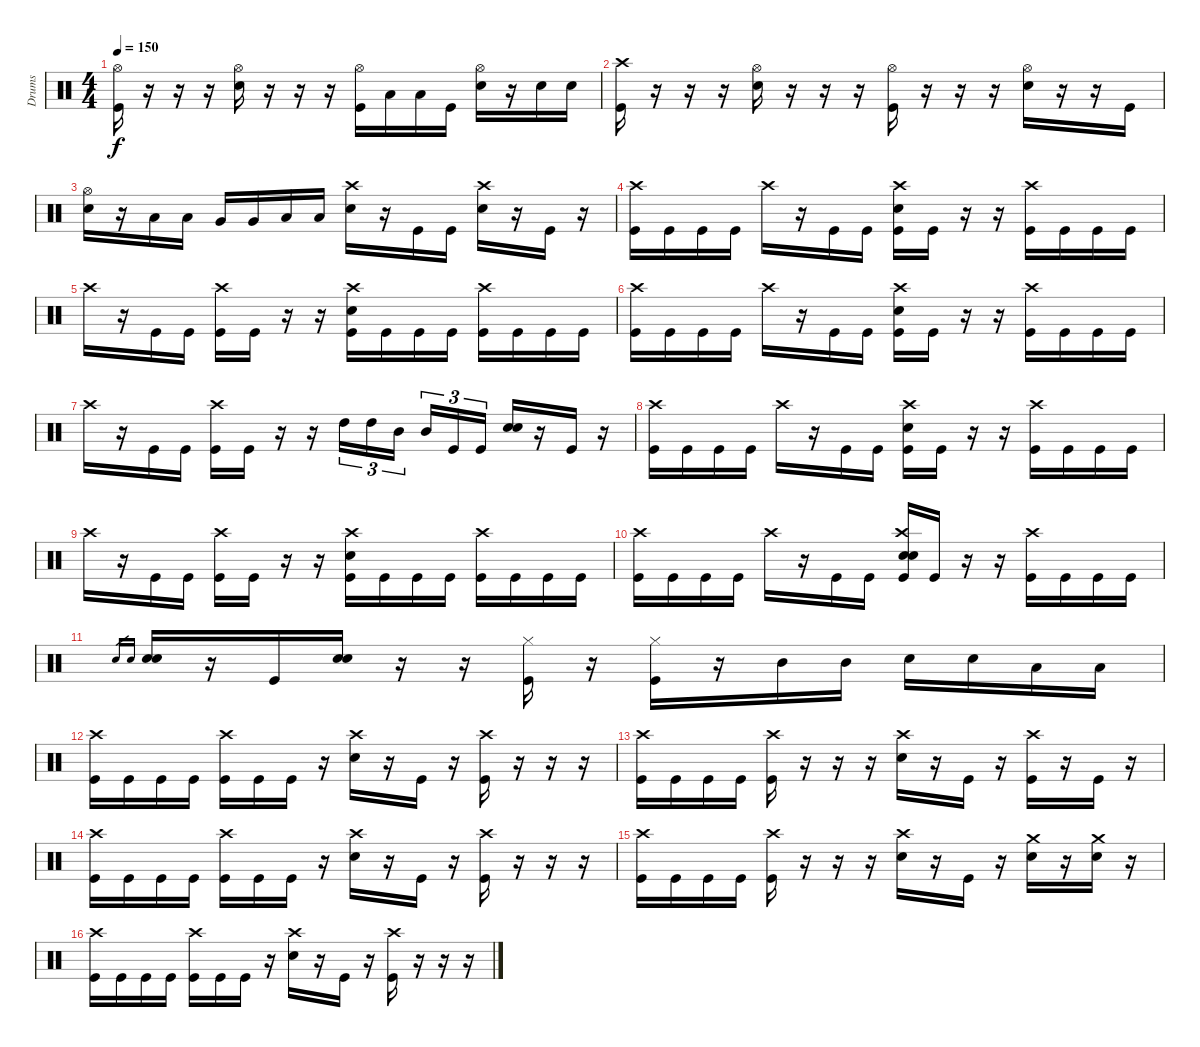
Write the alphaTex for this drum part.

\track ("Drums" "Drums") {instrument percussion}
\staff {score}
\articulation defaults
\ts (4 4)
\tempo 150
\clef neutral
\ks c
("Hi-Hat (open)" "Kick (hit)").16{dy f} r.16 r.16 r.16 ("Hi-Hat (open)" "Electric Snare (hit)").16 r.16 r.16 r.16 ("Hi-Hat (open)" "Kick (hit)").16 "Low Tom (hit)".16 "Low Tom (hit)".16 "Kick (hit)".16 ("Hi-Hat (open)" "Electric Snare (hit)").16 r.16 "Electric Snare (hit)".16 "Electric Snare (hit)".16 |
("Crash high (hit)" "Kick (hit)").16 r.16 r.16 r.16 ("Hi-Hat (open)" "Electric Snare (hit)").16 r.16 r.16 r.16 ("Hi-Hat (open)" "Kick (hit)").16 r.16 r.16 r.16 ("Hi-Hat (open)" "Electric Snare (hit)").16 r.16 r.16 "Kick (hit)".16 |
("Hi-Hat (open)" "Electric Snare (hit)").16 r.16 "Low Tom (hit)".16 "Low Tom (hit)".16 "Very Low Tom (hit)".16 "Very Low Tom (hit)".16 "Low Tom (hit)".16 "Low Tom (hit)".16 ("Crash high (hit)" "Electric Snare (hit)").16 r.16 "Kick (hit)".16 "Kick (hit)".16 ("Crash high (hit)" "Electric Snare (hit)").16 r.16 "Kick (hit)".16 r.16 |
("Crash high (hit)" "Kick (hit)").16 "Kick (hit)".16 "Kick (hit)".16 "Kick (hit)".16 "Crash high (hit)".16 r.16 "Kick (hit)".16 "Kick (hit)".16 ("Crash high (hit)" "Electric Snare (hit)" "Kick (hit)").16 "Kick (hit)".16 r.16 r.16 ("Crash high (hit)" "Kick (hit)").16 "Kick (hit)".16 "Kick (hit)".16 "Kick (hit)".16 |
"Crash high (hit)".16 r.16 "Kick (hit)".16 "Kick (hit)".16 ("Crash high (hit)" "Kick (hit)").16 "Kick (hit)".16 r.16 r.16 ("Crash high (hit)" "Electric Snare (hit)" "Kick (hit)").16 "Kick (hit)".16 "Kick (hit)".16 "Kick (hit)".16 ("Crash high (hit)" "Kick (hit)").16 "Kick (hit)".16 "Kick (hit)".16 "Kick (hit)".16 |
("Crash high (hit)" "Kick (hit)").16 "Kick (hit)".16 "Kick (hit)".16 "Kick (hit)".16 "Crash high (hit)".16 r.16 "Kick (hit)".16 "Kick (hit)".16 ("Crash high (hit)" "Electric Snare (hit)" "Kick (hit)").16 "Kick (hit)".16 r.16 r.16 ("Crash high (hit)" "Kick (hit)").16 "Kick (hit)".16 "Kick (hit)".16 "Kick (hit)".16 |
"Crash high (hit)".16 r.16 "Kick (hit)".16 "Kick (hit)".16 ("Crash high (hit)" "Kick (hit)").16 "Kick (hit)".16 r.16 r.16 "High Tom (hit)".16{tu (3 2)} "High Tom (hit)".16{tu (3 2)} "Mid Tom (hit)".16{tu (3 2)} "Mid Tom (hit)".16{tu (3 2)} "Kick (hit)".16{tu (3 2)} "Kick (hit)".16{tu (3 2)} ("Snare (hit) 2" "Electric Snare (hit)").16 r.16 "Kick (hit)".16 r.16 |
("Crash high (hit)" "Kick (hit)").16 "Kick (hit)".16 "Kick (hit)".16 "Kick (hit)".16 "Crash high (hit)".16 r.16 "Kick (hit)".16 "Kick (hit)".16 ("Crash high (hit)" "Electric Snare (hit)" "Kick (hit)").16 "Kick (hit)".16 r.16 r.16 ("Crash high (hit)" "Kick (hit)").16 "Kick (hit)".16 "Kick (hit)".16 "Kick (hit)".16 |
"Crash high (hit)".16 r.16 "Kick (hit)".16 "Kick (hit)".16 ("Crash high (hit)" "Kick (hit)").16 "Kick (hit)".16 r.16 r.16 ("Crash high (hit)" "Electric Snare (hit)" "Kick (hit)").16 "Kick (hit)".16 "Kick (hit)".16 "Kick (hit)".16 ("Crash high (hit)" "Kick (hit)").16 "Kick (hit)".16 "Kick (hit)".16 "Kick (hit)".16 |
("Crash high (hit)" "Kick (hit)").16 "Kick (hit)".16 "Kick (hit)".16 "Kick (hit)".16 "Crash high (hit)".16 r.16 "Kick (hit)".16 "Kick (hit)".16 ("Crash high (hit)" "Snare (hit) 2" "Electric Snare (hit)" "Kick (hit)").16 "Kick (hit)".16 r.16 r.16 ("Crash high (hit)" "Kick (hit)").16 "Kick (hit)".16 "Kick (hit)".16 "Kick (hit)".16 |
"Snare (hit) 2".16{gr} "Electric Snare (hit)".16{gr} ("Snare (hit) 2" "Electric Snare (hit)").16 r.16 "Kick (hit)".16 ("Snare (hit) 2" "Electric Snare (hit)").16 r.16 r.16 ("Hi-Hat (closed)" "Kick (hit)").16 r.16 ("Hi-Hat (closed)" "Kick (hit)").16 r.16 "Mid Tom (hit)".16 "Mid Tom (hit)".16 "Electric Snare (hit)".16 "Electric Snare (hit)".16 "Low Tom (hit)".16 "Low Tom (hit)".16 |
("Crash high (hit)" "Kick (hit)").16 "Kick (hit)".16 "Kick (hit)".16 "Kick (hit)".16 ("Crash high (hit)" "Kick (hit)").16 "Kick (hit)".16 "Kick (hit)".16 r.16 ("Crash high (hit)" "Electric Snare (hit)").16 r.16 "Kick (hit)".16 r.16 ("Crash high (hit)" "Kick (hit)").16 r.16 r.16 r.16 |
("Crash high (hit)" "Kick (hit)").16 "Kick (hit)".16 "Kick (hit)".16 "Kick (hit)".16 ("Crash high (hit)" "Kick (hit)").16 r.16 r.16 r.16 ("Crash high (hit)" "Electric Snare (hit)").16 r.16 "Kick (hit)".16 r.16 ("Crash high (hit)" "Kick (hit)").16 r.16 "Kick (hit)".16 r.16 |
("Crash high (hit)" "Kick (hit)").16 "Kick (hit)".16 "Kick (hit)".16 "Kick (hit)".16 ("Crash high (hit)" "Kick (hit)").16 "Kick (hit)".16 "Kick (hit)".16 r.16 ("Crash high (hit)" "Electric Snare (hit)").16 r.16 "Kick (hit)".16 r.16 ("Crash high (hit)" "Kick (hit)").16 r.16 r.16 r.16 |
("Crash high (hit)" "Kick (hit)").16 "Kick (hit)".16 "Kick (hit)".16 "Kick (hit)".16 ("Crash high (hit)" "Kick (hit)").16 r.16 r.16 r.16 ("Crash high (hit)" "Electric Snare (hit)").16 r.16 "Kick (hit)".16 r.16 ("Crash medium (hit)" "Electric Snare (hit)").16 r.16 ("Crash medium (hit)" "Electric Snare (hit)").16 r.16 |
("Crash high (hit)" "Kick (hit)").16 "Kick (hit)".16 "Kick (hit)".16 "Kick (hit)".16 ("Crash high (hit)" "Kick (hit)").16 "Kick (hit)".16 "Kick (hit)".16 r.16 ("Crash high (hit)" "Electric Snare (hit)").16 r.16 "Kick (hit)".16 r.16 ("Crash high (hit)" "Kick (hit)").16 r.16 r.16 r.16
